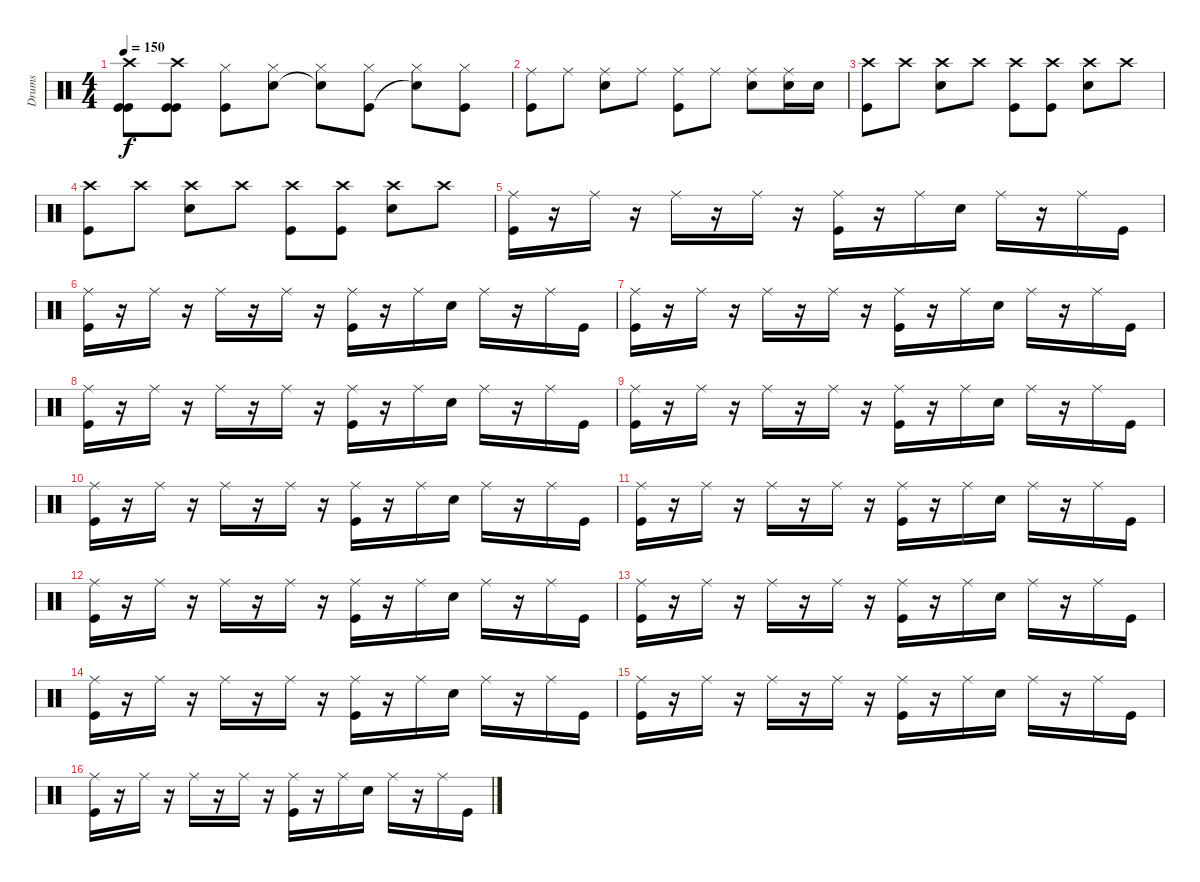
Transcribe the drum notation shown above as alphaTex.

\track ("Drums" "Drums") {instrument percussion}
\staff {score}
\articulation defaults
\ts (4 4)
\tempo 150
\clef neutral
\ks c
("Crash high (hit)" "Kick (hit)" "Kick (hit)").8{dy f} ("Crash high (hit)" "Kick (hit)" "Kick (hit)").8 ("Hi-Hat (closed)" "Kick (hit)").8 ("Hi-Hat (closed)" "Snare (hit) 2").8 ("Hi-Hat (closed)" "Snare (hit)"{t}).8 ("Hi-Hat (closed)" "Kick (hit)").8 ("Hi-Hat (closed)" "Snare (hit)"{t}).8 ("Hi-Hat (closed)" "Kick (hit)").8 |
("Ride (middle)" "Kick (hit)").8 "Ride (middle)".8 ("Ride (middle)" "Snare (hit) 2").8 "Ride (middle)".8 ("Ride (middle)" "Kick (hit)").8 "Ride (middle)".8 ("Ride (middle)" "Snare (hit) 2").8 ("Ride (middle)" "Snare (hit) 2").16 "Snare (hit) 2".16 |
("Crash high (hit)" "Kick (hit)").8 "Crash high (hit)".8 ("Crash high (hit)" "Snare (hit) 2").8 "Crash high (hit)".8 ("Crash high (hit)" "Kick (hit)").8 ("Crash high (hit)" "Kick (hit)").8 ("Crash high (hit)" "Snare (hit) 2").8 "Crash high (hit)".8 |
("Crash high (hit)" "Kick (hit)").8 "Crash high (hit)".8 ("Crash high (hit)" "Snare (hit) 2").8 "Crash high (hit)".8 ("Crash high (hit)" "Kick (hit)").8 ("Crash high (hit)" "Kick (hit)").8 ("Crash high (hit)" "Snare (hit) 2").8 "Crash high (hit)".8 |
("Ride (middle)" "Kick (hit)").16 r.16 "Ride (middle)".16 r.16 "Ride (middle)".16 r.16 "Ride (middle)".16 r.16 ("Ride (middle)" "Kick (hit)").16 r.16 "Ride (middle)".16 "Snare (hit) 2".16 "Ride (middle)".16 r.16 "Ride (middle)".16 "Kick (hit)".16 |
("Ride (middle)" "Kick (hit)").16 r.16 "Ride (middle)".16 r.16 "Ride (middle)".16 r.16 "Ride (middle)".16 r.16 ("Ride (middle)" "Kick (hit)").16 r.16 "Ride (middle)".16 "Snare (hit) 2".16 "Ride (middle)".16 r.16 "Ride (middle)".16 "Kick (hit)".16 |
("Ride (middle)" "Kick (hit)").16 r.16 "Ride (middle)".16 r.16 "Ride (middle)".16 r.16 "Ride (middle)".16 r.16 ("Ride (middle)" "Kick (hit)").16 r.16 "Ride (middle)".16 "Snare (hit) 2".16 "Ride (middle)".16 r.16 "Ride (middle)".16 "Kick (hit)".16 |
("Ride (middle)" "Kick (hit)").16 r.16 "Ride (middle)".16 r.16 "Ride (middle)".16 r.16 "Ride (middle)".16 r.16 ("Ride (middle)" "Kick (hit)").16 r.16 "Ride (middle)".16 "Snare (hit) 2".16 "Ride (middle)".16 r.16 "Ride (middle)".16 "Kick (hit)".16 |
("Ride (middle)" "Kick (hit)").16 r.16 "Ride (middle)".16 r.16 "Ride (middle)".16 r.16 "Ride (middle)".16 r.16 ("Ride (middle)" "Kick (hit)").16 r.16 "Ride (middle)".16 "Snare (hit) 2".16 "Ride (middle)".16 r.16 "Ride (middle)".16 "Kick (hit)".16 |
("Ride (middle)" "Kick (hit)").16 r.16 "Ride (middle)".16 r.16 "Ride (middle)".16 r.16 "Ride (middle)".16 r.16 ("Ride (middle)" "Kick (hit)").16 r.16 "Ride (middle)".16 "Snare (hit) 2".16 "Ride (middle)".16 r.16 "Ride (middle)".16 "Kick (hit)".16 |
("Ride (middle)" "Kick (hit)").16 r.16 "Ride (middle)".16 r.16 "Ride (middle)".16 r.16 "Ride (middle)".16 r.16 ("Ride (middle)" "Kick (hit)").16 r.16 "Ride (middle)".16 "Snare (hit) 2".16 "Ride (middle)".16 r.16 "Ride (middle)".16 "Kick (hit)".16 |
("Ride (middle)" "Kick (hit)").16 r.16 "Ride (middle)".16 r.16 "Ride (middle)".16 r.16 "Ride (middle)".16 r.16 ("Ride (middle)" "Kick (hit)").16 r.16 "Ride (middle)".16 "Snare (hit) 2".16 "Ride (middle)".16 r.16 "Ride (middle)".16 "Kick (hit)".16 |
("Ride (middle)" "Kick (hit)").16 r.16 "Ride (middle)".16 r.16 "Ride (middle)".16 r.16 "Ride (middle)".16 r.16 ("Ride (middle)" "Kick (hit)").16 r.16 "Ride (middle)".16 "Snare (hit) 2".16 "Ride (middle)".16 r.16 "Ride (middle)".16 "Kick (hit)".16 |
("Ride (middle)" "Kick (hit)").16 r.16 "Ride (middle)".16 r.16 "Ride (middle)".16 r.16 "Ride (middle)".16 r.16 ("Ride (middle)" "Kick (hit)").16 r.16 "Ride (middle)".16 "Snare (hit) 2".16 "Ride (middle)".16 r.16 "Ride (middle)".16 "Kick (hit)".16 |
("Ride (middle)" "Kick (hit)").16 r.16 "Ride (middle)".16 r.16 "Ride (middle)".16 r.16 "Ride (middle)".16 r.16 ("Ride (middle)" "Kick (hit)").16 r.16 "Ride (middle)".16 "Snare (hit) 2".16 "Ride (middle)".16 r.16 "Ride (middle)".16 "Kick (hit)".16 |
("Ride (middle)" "Kick (hit)").16 r.16 "Ride (middle)".16 r.16 "Ride (middle)".16 r.16 "Ride (middle)".16 r.16 ("Ride (middle)" "Kick (hit)").16 r.16 "Ride (middle)".16 "Snare (hit) 2".16 "Ride (middle)".16 r.16 "Ride (middle)".16 "Kick (hit)".16
